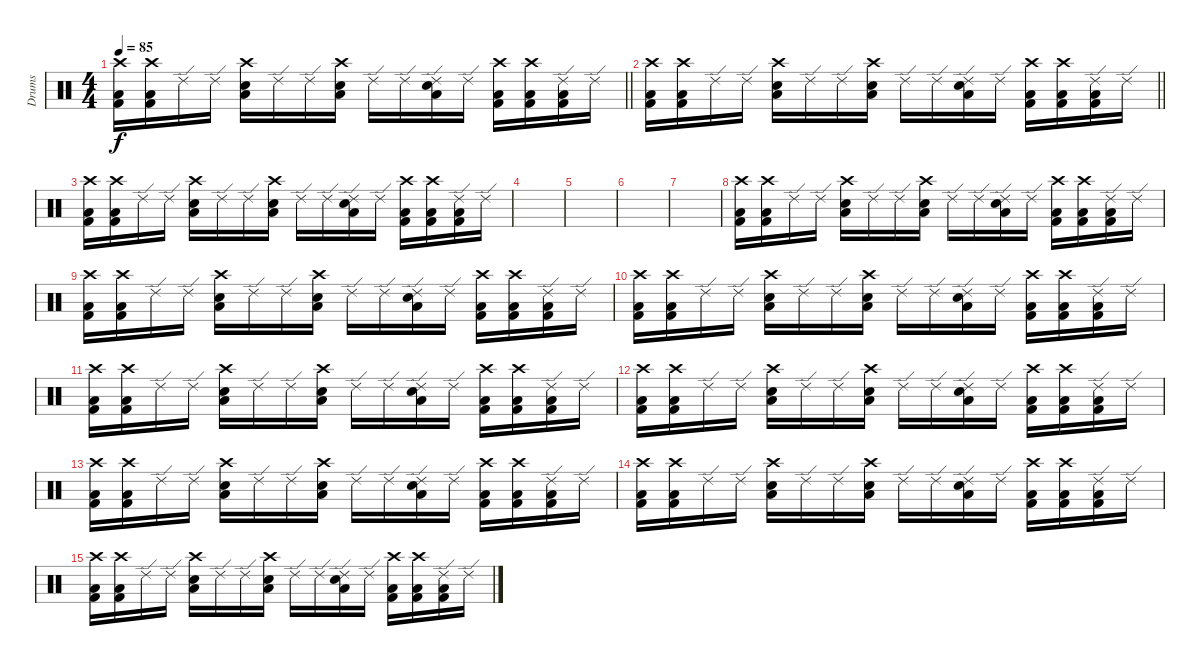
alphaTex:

\track ("Drums" "Drums") {instrument percussion}
\staff {score}
\articulation defaults
\ts (4 4)
\tempo 85
\clef neutral
\barLineRight lightlight
\ks c
("Crash high (hit)" "Low Floor Tom (hit)" "Kick (hit) 2").16{dy f} ("Crash high (hit)" "Low Floor Tom (hit)" "Kick (hit) 2").16 "Ride (edge) 2".16 "Ride (edge) 2".16 ("Crash high (hit)" "Low Floor Tom (hit)" "Snare (hit) 2").16 "Ride (edge) 2".16 "Ride (edge) 2".16 ("Crash high (hit)" "Low Floor Tom (hit)" "Snare (hit) 2").16 "Ride (edge) 2".16 "Ride (edge) 2".16 ("Ride (edge) 2" "Low Floor Tom (hit)" "Snare (hit) 2").16 "Ride (edge) 2".16 ("Crash high (hit)" "Low Floor Tom (hit)" "Kick (hit) 2").16 ("Crash high (hit)" "Low Floor Tom (hit)" "Kick (hit) 2").16 ("Ride (edge) 2" "Low Floor Tom (hit)" "Kick (hit) 2").16 "Ride (edge) 2".16 |
\barLineRight lightlight
("Crash high (hit)" "Low Floor Tom (hit)" "Kick (hit) 2").16 ("Crash high (hit)" "Low Floor Tom (hit)" "Kick (hit) 2").16 "Ride (edge) 2".16 "Ride (edge) 2".16 ("Crash high (hit)" "Low Floor Tom (hit)" "Snare (hit) 2").16 "Ride (edge) 2".16 "Ride (edge) 2".16 ("Crash high (hit)" "Low Floor Tom (hit)" "Snare (hit) 2").16 "Ride (edge) 2".16 "Ride (edge) 2".16 ("Ride (edge) 2" "Low Floor Tom (hit)" "Snare (hit) 2").16 "Ride (edge) 2".16 ("Crash high (hit)" "Low Floor Tom (hit)" "Kick (hit) 2").16 ("Crash high (hit)" "Low Floor Tom (hit)" "Kick (hit) 2").16 ("Ride (edge) 2" "Low Floor Tom (hit)" "Kick (hit) 2").16 "Ride (edge) 2".16 |
("Crash high (hit)" "Low Floor Tom (hit)" "Kick (hit) 2").16 ("Crash high (hit)" "Low Floor Tom (hit)" "Kick (hit) 2").16 "Ride (edge) 2".16 "Ride (edge) 2".16 ("Crash high (hit)" "Low Floor Tom (hit)" "Snare (hit) 2").16 "Ride (edge) 2".16 "Ride (edge) 2".16 ("Crash high (hit)" "Low Floor Tom (hit)" "Snare (hit) 2").16 "Ride (edge) 2".16 "Ride (edge) 2".16 ("Ride (edge) 2" "Low Floor Tom (hit)" "Snare (hit) 2").16 "Ride (edge) 2".16 ("Crash high (hit)" "Low Floor Tom (hit)" "Kick (hit) 2").16 ("Crash high (hit)" "Low Floor Tom (hit)" "Kick (hit) 2").16 ("Ride (edge) 2" "Low Floor Tom (hit)" "Kick (hit) 2").16 "Ride (edge) 2".16 |
|
|
|
|
("Crash high (hit)" "Low Floor Tom (hit)" "Kick (hit) 2").16 ("Crash high (hit)" "Low Floor Tom (hit)" "Kick (hit) 2").16 "Ride (edge) 2".16 "Ride (edge) 2".16 ("Crash high (hit)" "Low Floor Tom (hit)" "Snare (hit) 2").16 "Ride (edge) 2".16 "Ride (edge) 2".16 ("Crash high (hit)" "Low Floor Tom (hit)" "Snare (hit) 2").16 "Ride (edge) 2".16 "Ride (edge) 2".16 ("Ride (edge) 2" "Low Floor Tom (hit)" "Snare (hit) 2").16 "Ride (edge) 2".16 ("Crash high (hit)" "Low Floor Tom (hit)" "Kick (hit) 2").16 ("Crash high (hit)" "Low Floor Tom (hit)" "Kick (hit) 2").16 ("Ride (edge) 2" "Low Floor Tom (hit)" "Kick (hit) 2").16 "Ride (edge) 2".16 |
("Crash high (hit)" "Low Floor Tom (hit)" "Kick (hit) 2").16 ("Crash high (hit)" "Low Floor Tom (hit)" "Kick (hit) 2").16 "Ride (edge) 2".16 "Ride (edge) 2".16 ("Crash high (hit)" "Low Floor Tom (hit)" "Snare (hit) 2").16 "Ride (edge) 2".16 "Ride (edge) 2".16 ("Crash high (hit)" "Low Floor Tom (hit)" "Snare (hit) 2").16 "Ride (edge) 2".16 "Ride (edge) 2".16 ("Ride (edge) 2" "Low Floor Tom (hit)" "Snare (hit) 2").16 "Ride (edge) 2".16 ("Crash high (hit)" "Low Floor Tom (hit)" "Kick (hit) 2").16 ("Crash high (hit)" "Low Floor Tom (hit)" "Kick (hit) 2").16 ("Ride (edge) 2" "Low Floor Tom (hit)" "Kick (hit) 2").16 "Ride (edge) 2".16 |
("Crash high (hit)" "Low Floor Tom (hit)" "Kick (hit) 2").16 ("Crash high (hit)" "Low Floor Tom (hit)" "Kick (hit) 2").16 "Ride (edge) 2".16 "Ride (edge) 2".16 ("Crash high (hit)" "Low Floor Tom (hit)" "Snare (hit) 2").16 "Ride (edge) 2".16 "Ride (edge) 2".16 ("Crash high (hit)" "Low Floor Tom (hit)" "Snare (hit) 2").16 "Ride (edge) 2".16 "Ride (edge) 2".16 ("Ride (edge) 2" "Low Floor Tom (hit)" "Snare (hit) 2").16 "Ride (edge) 2".16 ("Crash high (hit)" "Low Floor Tom (hit)" "Kick (hit) 2").16 ("Crash high (hit)" "Low Floor Tom (hit)" "Kick (hit) 2").16 ("Ride (edge) 2" "Low Floor Tom (hit)" "Kick (hit) 2").16 "Ride (edge) 2".16 |
("Crash high (hit)" "Low Floor Tom (hit)" "Kick (hit) 2").16 ("Crash high (hit)" "Low Floor Tom (hit)" "Kick (hit) 2").16 "Ride (edge) 2".16 "Ride (edge) 2".16 ("Crash high (hit)" "Low Floor Tom (hit)" "Snare (hit) 2").16 "Ride (edge) 2".16 "Ride (edge) 2".16 ("Crash high (hit)" "Low Floor Tom (hit)" "Snare (hit) 2").16 "Ride (edge) 2".16 "Ride (edge) 2".16 ("Ride (edge) 2" "Low Floor Tom (hit)" "Snare (hit) 2").16 "Ride (edge) 2".16 ("Crash high (hit)" "Low Floor Tom (hit)" "Kick (hit) 2").16 ("Crash high (hit)" "Low Floor Tom (hit)" "Kick (hit) 2").16 ("Ride (edge) 2" "Low Floor Tom (hit)" "Kick (hit) 2").16 "Ride (edge) 2".16 |
("Crash high (hit)" "Low Floor Tom (hit)" "Kick (hit) 2").16 ("Crash high (hit)" "Low Floor Tom (hit)" "Kick (hit) 2").16 "Ride (edge) 2".16 "Ride (edge) 2".16 ("Crash high (hit)" "Low Floor Tom (hit)" "Snare (hit) 2").16 "Ride (edge) 2".16 "Ride (edge) 2".16 ("Crash high (hit)" "Low Floor Tom (hit)" "Snare (hit) 2").16 "Ride (edge) 2".16 "Ride (edge) 2".16 ("Ride (edge) 2" "Low Floor Tom (hit)" "Snare (hit) 2").16 "Ride (edge) 2".16 ("Crash high (hit)" "Low Floor Tom (hit)" "Kick (hit) 2").16 ("Crash high (hit)" "Low Floor Tom (hit)" "Kick (hit) 2").16 ("Ride (edge) 2" "Low Floor Tom (hit)" "Kick (hit) 2").16 "Ride (edge) 2".16 |
("Crash high (hit)" "Low Floor Tom (hit)" "Kick (hit) 2").16 ("Crash high (hit)" "Low Floor Tom (hit)" "Kick (hit) 2").16 "Ride (edge) 2".16 "Ride (edge) 2".16 ("Crash high (hit)" "Low Floor Tom (hit)" "Snare (hit) 2").16 "Ride (edge) 2".16 "Ride (edge) 2".16 ("Crash high (hit)" "Low Floor Tom (hit)" "Snare (hit) 2").16 "Ride (edge) 2".16 "Ride (edge) 2".16 ("Ride (edge) 2" "Low Floor Tom (hit)" "Snare (hit) 2").16 "Ride (edge) 2".16 ("Crash high (hit)" "Low Floor Tom (hit)" "Kick (hit) 2").16 ("Crash high (hit)" "Low Floor Tom (hit)" "Kick (hit) 2").16 ("Ride (edge) 2" "Low Floor Tom (hit)" "Kick (hit) 2").16 "Ride (edge) 2".16 |
("Crash high (hit)" "Low Floor Tom (hit)" "Kick (hit) 2").16 ("Crash high (hit)" "Low Floor Tom (hit)" "Kick (hit) 2").16 "Ride (edge) 2".16 "Ride (edge) 2".16 ("Crash high (hit)" "Low Floor Tom (hit)" "Snare (hit) 2").16 "Ride (edge) 2".16 "Ride (edge) 2".16 ("Crash high (hit)" "Low Floor Tom (hit)" "Snare (hit) 2").16 "Ride (edge) 2".16 "Ride (edge) 2".16 ("Ride (edge) 2" "Low Floor Tom (hit)" "Snare (hit) 2").16 "Ride (edge) 2".16 ("Crash high (hit)" "Low Floor Tom (hit)" "Kick (hit) 2").16 ("Crash high (hit)" "Low Floor Tom (hit)" "Kick (hit) 2").16 ("Ride (edge) 2" "Low Floor Tom (hit)" "Kick (hit) 2").16 "Ride (edge) 2".16 |
("Crash high (hit)" "Low Floor Tom (hit)" "Kick (hit) 2").16 ("Crash high (hit)" "Low Floor Tom (hit)" "Kick (hit) 2").16 "Ride (edge) 2".16 "Ride (edge) 2".16 ("Crash high (hit)" "Low Floor Tom (hit)" "Snare (hit) 2").16 "Ride (edge) 2".16 "Ride (edge) 2".16 ("Crash high (hit)" "Low Floor Tom (hit)" "Snare (hit) 2").16 "Ride (edge) 2".16 "Ride (edge) 2".16 ("Ride (edge) 2" "Low Floor Tom (hit)" "Snare (hit) 2").16 "Ride (edge) 2".16 ("Crash high (hit)" "Low Floor Tom (hit)" "Kick (hit) 2").16 ("Crash high (hit)" "Low Floor Tom (hit)" "Kick (hit) 2").16 ("Ride (edge) 2" "Low Floor Tom (hit)" "Kick (hit) 2").16 "Ride (edge) 2".16
